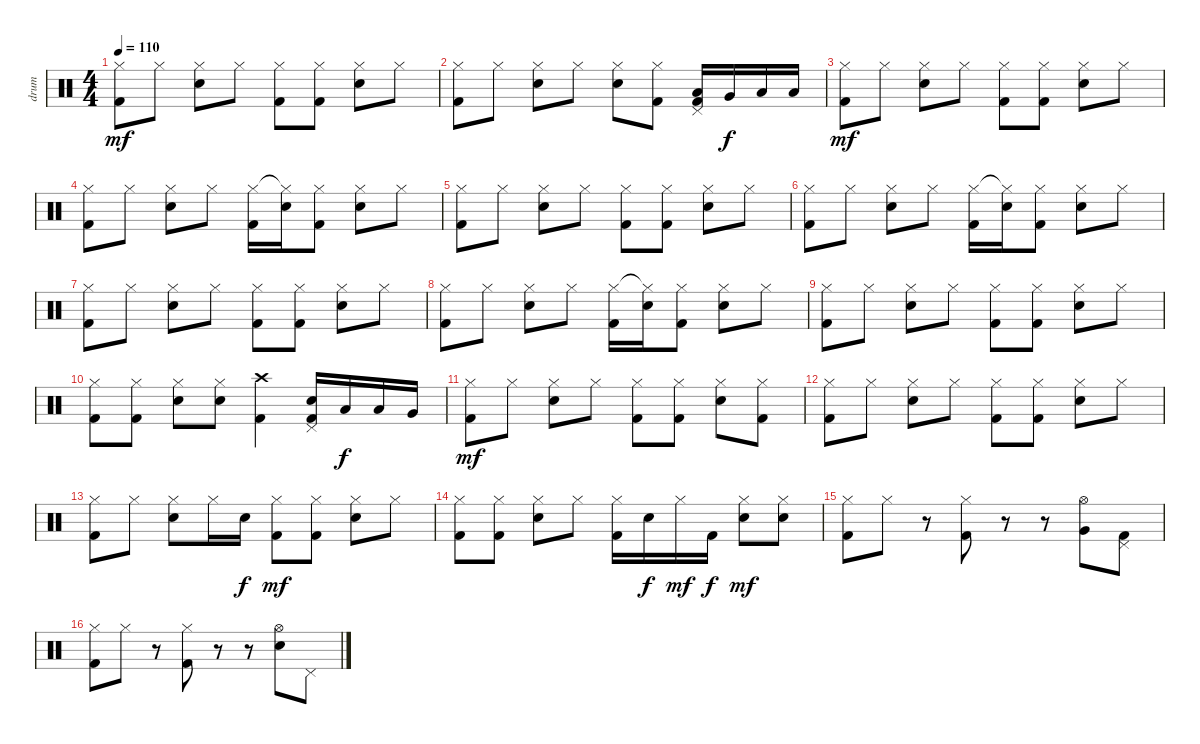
\track ("drum" "drum") {instrument percussion}
\staff
\articulation defaults
\ts (4 4)
\tempo 110
\clef neutral
\ks c
("Hi-Hat (closed)" "Kick (hit) 2").8{dy mf} "Hi-Hat (closed)".8 ("Hi-Hat (closed)" "Electric Snare (hit)").8 "Hi-Hat (closed)".8 ("Hi-Hat (closed)" "Kick (hit) 2").8 ("Hi-Hat (closed)" "Kick (hit) 2").8 ("Hi-Hat (closed)" "Electric Snare (hit)").8 "Hi-Hat (closed)".8 |
("Hi-Hat (closed)" "Kick (hit) 2").8 "Hi-Hat (closed)".8 ("Hi-Hat (closed)" "Electric Snare (hit)").8 "Hi-Hat (closed)".8 ("Hi-Hat (closed)" "Electric Snare (hit)").8 ("Hi-Hat (closed)" "Kick (hit) 2").8 ("Pedal Hi-Hat (hit)" "Low Tom (hit)" "Kick (hit) 2").16 "Very Low Tom (hit)".16{dy f} "Low Tom (hit)".16 "Low Floor Tom (hit)".16 |
("Hi-Hat (closed)" "Kick (hit) 2").8{dy mf} "Hi-Hat (closed)".8 ("Hi-Hat (closed)" "Electric Snare (hit)").8 "Hi-Hat (closed)".8 ("Hi-Hat (closed)" "Kick (hit) 2").8 ("Hi-Hat (closed)" "Kick (hit) 2").8 ("Hi-Hat (closed)" "Electric Snare (hit)").8 "Hi-Hat (closed)".8 |
("Hi-Hat (closed)" "Kick (hit) 2").8 "Hi-Hat (closed)".8 ("Hi-Hat (closed)" "Electric Snare (hit)").8 "Hi-Hat (closed)".8 ("Hi-Hat (closed)" "Kick (hit) 2").16 ("Hi-Hat (closed)"{t} "Electric Snare (hit)").16 ("Hi-Hat (closed)" "Kick (hit) 2").8 ("Hi-Hat (closed)" "Electric Snare (hit)").8 "Hi-Hat (closed)".8 |
("Hi-Hat (closed)" "Kick (hit) 2").8 "Hi-Hat (closed)".8 ("Hi-Hat (closed)" "Electric Snare (hit)").8 "Hi-Hat (closed)".8 ("Hi-Hat (closed)" "Kick (hit) 2").8 ("Hi-Hat (closed)" "Kick (hit) 2").8 ("Hi-Hat (closed)" "Electric Snare (hit)").8 "Hi-Hat (closed)".8 |
("Hi-Hat (closed)" "Kick (hit) 2").8 "Hi-Hat (closed)".8 ("Hi-Hat (closed)" "Electric Snare (hit)").8 "Hi-Hat (closed)".8 ("Hi-Hat (closed)" "Kick (hit) 2").16 ("Hi-Hat (closed)"{t} "Electric Snare (hit)").16 ("Hi-Hat (closed)" "Kick (hit) 2").8 ("Hi-Hat (closed)" "Electric Snare (hit)").8 "Hi-Hat (closed)".8 |
("Hi-Hat (closed)" "Kick (hit) 2").8 "Hi-Hat (closed)".8 ("Hi-Hat (closed)" "Electric Snare (hit)").8 "Hi-Hat (closed)".8 ("Hi-Hat (closed)" "Kick (hit) 2").8 ("Hi-Hat (closed)" "Kick (hit) 2").8 ("Hi-Hat (closed)" "Electric Snare (hit)").8 "Hi-Hat (closed)".8 |
("Hi-Hat (closed)" "Kick (hit) 2").8 "Hi-Hat (closed)".8 ("Hi-Hat (closed)" "Electric Snare (hit)").8 "Hi-Hat (closed)".8 ("Hi-Hat (closed)" "Kick (hit) 2").16 ("Hi-Hat (closed)"{t} "Electric Snare (hit)").16 ("Hi-Hat (closed)" "Kick (hit) 2").8 ("Hi-Hat (closed)" "Electric Snare (hit)").8 "Hi-Hat (closed)".8 |
("Hi-Hat (closed)" "Kick (hit) 2").8 "Hi-Hat (closed)".8 ("Hi-Hat (closed)" "Electric Snare (hit)").8 "Hi-Hat (closed)".8 ("Hi-Hat (closed)" "Kick (hit) 2").8 ("Hi-Hat (closed)" "Kick (hit) 2").8 ("Hi-Hat (closed)" "Electric Snare (hit)").8 "Hi-Hat (closed)".8 |
("Hi-Hat (closed)" "Kick (hit) 2").8 ("Hi-Hat (closed)" "Kick (hit) 2").8 ("Hi-Hat (closed)" "Electric Snare (hit)").8 ("Hi-Hat (closed)" "Electric Snare (hit)").8 ("Crash high (hit)" "Kick (hit) 2").4 ("Pedal Hi-Hat (hit)" "Electric Snare (hit)" "Kick (hit) 2").16 "Low Floor Tom (hit)".16{dy f} "Low Tom (hit)".16 "Very Low Tom (hit)".16 |
("Hi-Hat (closed)" "Kick (hit) 2").8{dy mf} "Hi-Hat (closed)".8 ("Hi-Hat (closed)" "Electric Snare (hit)").8 "Hi-Hat (closed)".8 ("Hi-Hat (closed)" "Kick (hit) 2").8 ("Hi-Hat (closed)" "Kick (hit) 2").8 ("Hi-Hat (closed)" "Electric Snare (hit)").8 ("Hi-Hat (closed)" "Kick (hit) 2").8 |
("Hi-Hat (closed)" "Kick (hit) 2").8 "Hi-Hat (closed)".8 ("Hi-Hat (closed)" "Electric Snare (hit)").8 "Hi-Hat (closed)".8 ("Hi-Hat (closed)" "Kick (hit) 2").8 ("Hi-Hat (closed)" "Kick (hit) 2").8 ("Hi-Hat (closed)" "Electric Snare (hit)").8 "Hi-Hat (closed)".8 |
("Hi-Hat (closed)" "Kick (hit) 2").8 "Hi-Hat (closed)".8 ("Hi-Hat (closed)" "Electric Snare (hit)").8 "Hi-Hat (closed)".16 "Electric Snare (hit)".16{dy f} ("Hi-Hat (closed)" "Kick (hit) 2").8{dy mf} ("Hi-Hat (closed)" "Kick (hit) 2").8 ("Hi-Hat (closed)" "Electric Snare (hit)").8 "Hi-Hat (closed)".8 |
("Hi-Hat (closed)" "Kick (hit) 2").8 ("Hi-Hat (closed)" "Kick (hit) 2").8 ("Hi-Hat (closed)" "Electric Snare (hit)").8 "Hi-Hat (closed)".8 ("Hi-Hat (closed)" "Kick (hit) 2").16 "Electric Snare (hit)".16{dy f} "Hi-Hat (closed)".16{dy mf} "Kick (hit) 2".16{dy f} ("Hi-Hat (closed)" "Electric Snare (hit)").8{dy mf} ("Hi-Hat (closed)" "Electric Snare (hit)").8 |
("Hi-Hat (closed)" "Kick (hit) 2").8 "Hi-Hat (closed)".8 r.8 ("Hi-Hat (closed)" "Kick (hit) 2").8 r.8 r.8 ("Hi-Hat (open)" "Very Low Tom (hit)").8 ("Pedal Hi-Hat (hit)" "Kick (hit) 2").8 |
("Hi-Hat (closed)" "Kick (hit) 2").8 "Hi-Hat (closed)".8 r.8 ("Hi-Hat (closed)" "Kick (hit) 2").8 r.8 r.8 ("Hi-Hat (open)" "Electric Snare (hit)").8 "Pedal Hi-Hat (hit)".8
